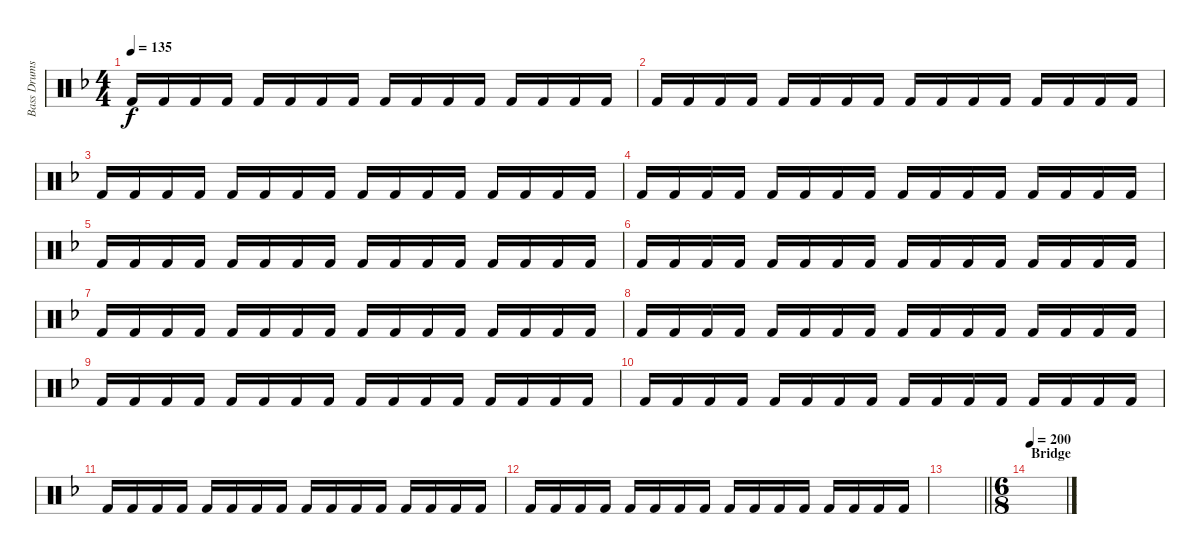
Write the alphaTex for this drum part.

\track ("Bass Drums" "Bass Drums") {instrument percussion}
\staff {score}
\articulation defaults
\ts (4 4)
\tempo 135
\clef neutral
\ks dminor "Kick (hit) 2".16{dy f} "Kick (hit) 2".16 "Kick (hit) 2".16 "Kick (hit) 2".16 "Kick (hit) 2".16 "Kick (hit) 2".16 "Kick (hit) 2".16 "Kick (hit) 2".16 "Kick (hit) 2".16 "Kick (hit) 2".16 "Kick (hit) 2".16 "Kick (hit) 2".16 "Kick (hit) 2".16 "Kick (hit) 2".16 "Kick (hit) 2".16 "Kick (hit) 2".16
|
"Kick (hit) 2".16 "Kick (hit) 2".16 "Kick (hit) 2".16 "Kick (hit) 2".16 "Kick (hit) 2".16 "Kick (hit) 2".16 "Kick (hit) 2".16 "Kick (hit) 2".16 "Kick (hit) 2".16 "Kick (hit) 2".16 "Kick (hit) 2".16 "Kick (hit) 2".16 "Kick (hit) 2".16 "Kick (hit) 2".16 "Kick (hit) 2".16 "Kick (hit) 2".16 |
"Kick (hit) 2".16 "Kick (hit) 2".16 "Kick (hit) 2".16 "Kick (hit) 2".16 "Kick (hit) 2".16 "Kick (hit) 2".16 "Kick (hit) 2".16 "Kick (hit) 2".16 "Kick (hit) 2".16 "Kick (hit) 2".16 "Kick (hit) 2".16 "Kick (hit) 2".16 "Kick (hit) 2".16 "Kick (hit) 2".16 "Kick (hit) 2".16 "Kick (hit) 2".16 |
"Kick (hit) 2".16 "Kick (hit) 2".16 "Kick (hit) 2".16 "Kick (hit) 2".16 "Kick (hit) 2".16 "Kick (hit) 2".16 "Kick (hit) 2".16 "Kick (hit) 2".16 "Kick (hit) 2".16 "Kick (hit) 2".16 "Kick (hit) 2".16 "Kick (hit) 2".16 "Kick (hit) 2".16 "Kick (hit) 2".16 "Kick (hit) 2".16 "Kick (hit) 2".16 |
"Kick (hit) 2".16 "Kick (hit) 2".16 "Kick (hit) 2".16 "Kick (hit) 2".16 "Kick (hit) 2".16 "Kick (hit) 2".16 "Kick (hit) 2".16 "Kick (hit) 2".16 "Kick (hit) 2".16 "Kick (hit) 2".16 "Kick (hit) 2".16 "Kick (hit) 2".16 "Kick (hit) 2".16 "Kick (hit) 2".16 "Kick (hit) 2".16 "Kick (hit) 2".16 |
"Kick (hit) 2".16 "Kick (hit) 2".16 "Kick (hit) 2".16 "Kick (hit) 2".16 "Kick (hit) 2".16 "Kick (hit) 2".16 "Kick (hit) 2".16 "Kick (hit) 2".16 "Kick (hit) 2".16 "Kick (hit) 2".16 "Kick (hit) 2".16 "Kick (hit) 2".16 "Kick (hit) 2".16 "Kick (hit) 2".16 "Kick (hit) 2".16 "Kick (hit) 2".16 |
"Kick (hit) 2".16 "Kick (hit) 2".16 "Kick (hit) 2".16 "Kick (hit) 2".16 "Kick (hit) 2".16 "Kick (hit) 2".16 "Kick (hit) 2".16 "Kick (hit) 2".16 "Kick (hit) 2".16 "Kick (hit) 2".16 "Kick (hit) 2".16 "Kick (hit) 2".16 "Kick (hit) 2".16 "Kick (hit) 2".16 "Kick (hit) 2".16 "Kick (hit) 2".16 |
"Kick (hit) 2".16 "Kick (hit) 2".16 "Kick (hit) 2".16 "Kick (hit) 2".16 "Kick (hit) 2".16 "Kick (hit) 2".16 "Kick (hit) 2".16 "Kick (hit) 2".16 "Kick (hit) 2".16 "Kick (hit) 2".16 "Kick (hit) 2".16 "Kick (hit) 2".16 "Kick (hit) 2".16 "Kick (hit) 2".16 "Kick (hit) 2".16 "Kick (hit) 2".16 |
"Kick (hit) 2".16 "Kick (hit) 2".16 "Kick (hit) 2".16 "Kick (hit) 2".16 "Kick (hit) 2".16 "Kick (hit) 2".16 "Kick (hit) 2".16 "Kick (hit) 2".16 "Kick (hit) 2".16 "Kick (hit) 2".16 "Kick (hit) 2".16 "Kick (hit) 2".16 "Kick (hit) 2".16 "Kick (hit) 2".16 "Kick (hit) 2".16 "Kick (hit) 2".16 |
"Kick (hit) 2".16 "Kick (hit) 2".16 "Kick (hit) 2".16 "Kick (hit) 2".16 "Kick (hit) 2".16 "Kick (hit) 2".16 "Kick (hit) 2".16 "Kick (hit) 2".16 "Kick (hit) 2".16 "Kick (hit) 2".16 "Kick (hit) 2".16 "Kick (hit) 2".16 "Kick (hit) 2".16 "Kick (hit) 2".16 "Kick (hit) 2".16 "Kick (hit) 2".16 |
"Kick (hit) 2".16 "Kick (hit) 2".16 "Kick (hit) 2".16 "Kick (hit) 2".16 "Kick (hit) 2".16 "Kick (hit) 2".16 "Kick (hit) 2".16 "Kick (hit) 2".16 "Kick (hit) 2".16 "Kick (hit) 2".16 "Kick (hit) 2".16 "Kick (hit) 2".16 "Kick (hit) 2".16 "Kick (hit) 2".16 "Kick (hit) 2".16 "Kick (hit) 2".16 |
"Kick (hit) 2".16 "Kick (hit) 2".16 "Kick (hit) 2".16 "Kick (hit) 2".16 "Kick (hit) 2".16 "Kick (hit) 2".16 "Kick (hit) 2".16 "Kick (hit) 2".16 "Kick (hit) 2".16 "Kick (hit) 2".16 "Kick (hit) 2".16 "Kick (hit) 2".16 "Kick (hit) 2".16 "Kick (hit) 2".16 "Kick (hit) 2".16 "Kick (hit) 2".16 |
\barLineRight lightlight
|
\ts (6 8)
\section ("" "Bridge")
\tempo 200
